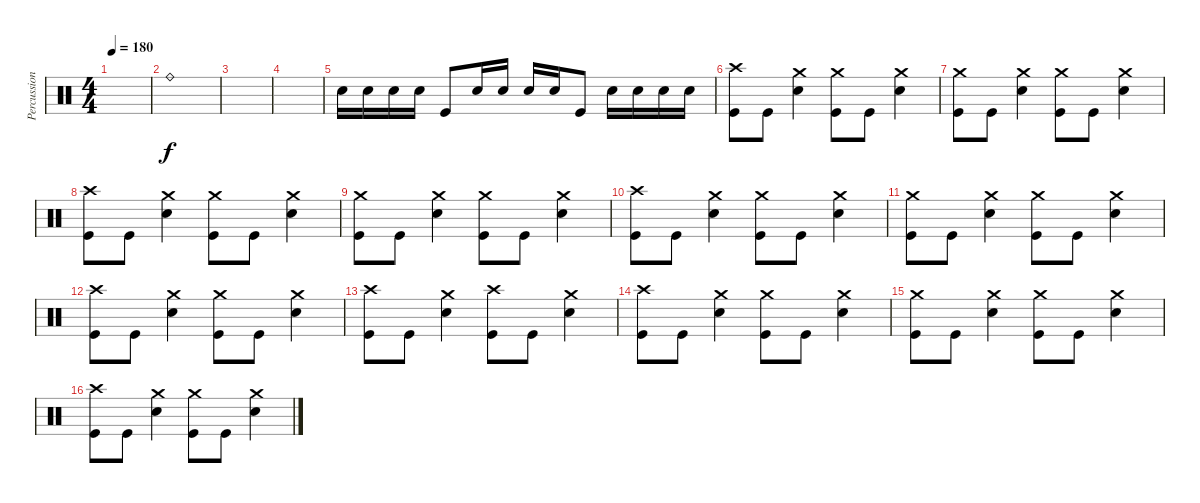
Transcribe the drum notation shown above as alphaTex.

\track ("Percussion" "Percussion") {instrument percussion}
\staff {score}
\articulation defaults
\ts (4 4)
\tempo 180
\clef neutral
\ks c
|
"Ride (bell)".1{dy f} |
|
|
"Snare (hit) 2".16 "Snare (hit) 2".16 "Snare (hit) 2".16 "Snare (hit) 2".16 "Kick (hit)".8 "Snare (hit) 2".16 "Snare (hit) 2".16 "Snare (hit) 2".16 "Snare (hit) 2".16 "Kick (hit)".8 "Snare (hit) 2".16 "Snare (hit) 2".16 "Snare (hit) 2".16 "Snare (hit) 2".16 |
("Crash high (hit)" "Kick (hit)").8 "Kick (hit)".8 ("Crash medium (hit)" "Snare (hit) 2").4 ("Crash medium (hit)" "Kick (hit)").8 "Kick (hit)".8 ("Crash medium (hit)" "Snare (hit) 2").4 |
("Crash medium (hit)" "Kick (hit)").8 "Kick (hit)".8 ("Crash medium (hit)" "Snare (hit) 2").4 ("Crash medium (hit)" "Kick (hit)").8 "Kick (hit)".8 ("Crash medium (hit)" "Snare (hit) 2").4 |
("Crash high (hit)" "Kick (hit)").8 "Kick (hit)".8 ("Crash medium (hit)" "Snare (hit) 2").4 ("Crash medium (hit)" "Kick (hit)").8 "Kick (hit)".8 ("Crash medium (hit)" "Snare (hit) 2").4 |
("Crash medium (hit)" "Kick (hit)").8 "Kick (hit)".8 ("Crash medium (hit)" "Snare (hit) 2").4 ("Crash medium (hit)" "Kick (hit)").8 "Kick (hit)".8 ("Crash medium (hit)" "Snare (hit) 2").4 |
("Crash high (hit)" "Kick (hit)").8 "Kick (hit)".8 ("Crash medium (hit)" "Snare (hit) 2").4 ("Crash medium (hit)" "Kick (hit)").8 "Kick (hit)".8 ("Crash medium (hit)" "Snare (hit) 2").4 |
("Crash medium (hit)" "Kick (hit)").8 "Kick (hit)".8 ("Crash medium (hit)" "Snare (hit) 2").4 ("Crash medium (hit)" "Kick (hit)").8 "Kick (hit)".8 ("Crash medium (hit)" "Snare (hit) 2").4 |
("Crash high (hit)" "Kick (hit)").8 "Kick (hit)".8 ("Crash medium (hit)" "Snare (hit) 2").4 ("Crash medium (hit)" "Kick (hit)").8 "Kick (hit)".8 ("Crash medium (hit)" "Snare (hit) 2").4 |
("Crash high (hit)" "Kick (hit)").8 "Kick (hit)".8 ("Crash medium (hit)" "Snare (hit) 2").4 ("Crash high (hit)" "Kick (hit)").8 "Kick (hit)".8 ("Crash medium (hit)" "Snare (hit) 2").4 |
("Crash high (hit)" "Kick (hit)").8 "Kick (hit)".8 ("Crash medium (hit)" "Snare (hit) 2").4 ("Crash medium (hit)" "Kick (hit)").8 "Kick (hit)".8 ("Crash medium (hit)" "Snare (hit) 2").4 |
("Crash medium (hit)" "Kick (hit)").8 "Kick (hit)".8 ("Crash medium (hit)" "Snare (hit) 2").4 ("Crash medium (hit)" "Kick (hit)").8 "Kick (hit)".8 ("Crash medium (hit)" "Snare (hit) 2").4 |
("Crash high (hit)" "Kick (hit)").8 "Kick (hit)".8 ("Crash medium (hit)" "Snare (hit) 2").4 ("Crash medium (hit)" "Kick (hit)").8 "Kick (hit)".8 ("Crash medium (hit)" "Snare (hit) 2").4
